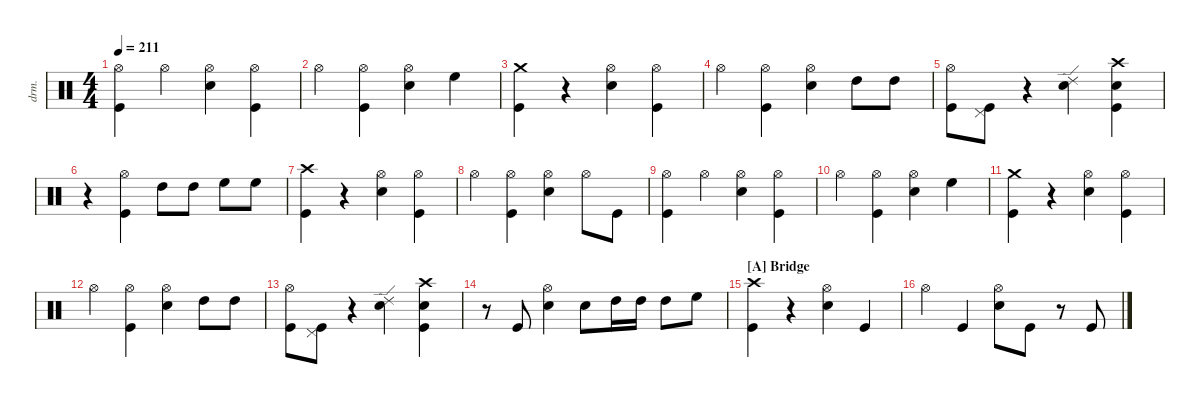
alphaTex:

\defaultSystemsLayout 4
\hideDynamics
\bracketExtendMode nobrackets
\track ("Drums" "drm.") {instrument percussion}
\staff {score}
\articulation defaults
\ts (4 4)
\tempo 211
\clef neutral
\ks c
("Kick (hit)" "Hi-Hat (open)"{acc #}).4{dy fff} "Hi-Hat (open)"{acc #}.4{dy mf} ("Snare (hit) 2" "Hi-Hat (open)"{acc #}).4{dy ff} ("Kick (hit)" "Hi-Hat (open)"{acc #}).4 |
"Hi-Hat (open)"{acc #}.4{dy fff} ("Kick (hit)" "Hi-Hat (open)"{acc #}).4{dy ff} ("Snare (hit) 2" "Hi-Hat (open)"{acc #}).4 "High Floor Tom (hit)".4 |
("Kick (hit)" "Crash medium (hit)").4{dy fff} r.4 ("Snare (hit) 2" "Hi-Hat (open)"{acc #}).4{dy ff} ("Kick (hit)" "Hi-Hat (open)"{acc #}).4 |
"Hi-Hat (open)"{acc #}.4{dy fff} ("Kick (hit)" "Hi-Hat (open)"{acc #}).4{dy ff} ("Snare (hit) 2" "Hi-Hat (open)"{acc #}).4 "High Tom (hit)".8 "High Tom (hit)".8{dy mf} |
("Kick (hit)" "Hi-Hat (open)"{acc #}).8{dy ff} ("Kick (hit)" "Pedal Hi-Hat (hit)"{acc #}).8{dy fff} r.4 ("Snare (hit) 2" "Ride (edge) 2").4{dy f} ("Kick (hit)" "Snare (hit) 2" "Crash high (hit)"{acc #}).4{dy ff} |
r.4 ("Kick (hit)" "Hi-Hat (open)"{acc #}).4{dy fff} "High Tom (hit)".8{dy ff} "High Tom (hit)".8{dy mf} "High Floor Tom (hit)".8{dy f} "High Floor Tom (hit)".8{dy mf} |
("Kick (hit)" "Crash high (hit)"{acc #}).4{dy fff} r.4 ("Snare (hit) 2" "Hi-Hat (open)"{acc #}).4{dy ff} ("Kick (hit)" "Hi-Hat (open)"{acc #}).4 |
"Hi-Hat (open)"{acc #}.4{dy fff} ("Kick (hit)" "Hi-Hat (open)"{acc #}).4{dy ff} ("Snare (hit) 2" "Hi-Hat (open)"{acc #}).4 "Hi-Hat (open)"{acc #}.8{dy mf} "Kick (hit)".8 |
("Kick (hit)" "Hi-Hat (open)"{acc #}).4{dy fff} "Hi-Hat (open)"{acc #}.4{dy mf} ("Snare (hit) 2" "Hi-Hat (open)"{acc #}).4{dy ff} ("Kick (hit)" "Hi-Hat (open)"{acc #}).4 |
"Hi-Hat (open)"{acc #}.4{dy fff} ("Kick (hit)" "Hi-Hat (open)"{acc #}).4{dy ff} ("Snare (hit) 2" "Hi-Hat (open)"{acc #}).4 "High Floor Tom (hit)".4 |
("Kick (hit)" "Crash medium (hit)").4{dy fff} r.4 ("Snare (hit) 2" "Hi-Hat (open)"{acc #}).4{dy ff} ("Kick (hit)" "Hi-Hat (open)"{acc #}).4 |
"Hi-Hat (open)"{acc #}.4{dy fff} ("Kick (hit)" "Hi-Hat (open)"{acc #}).4{dy ff} ("Snare (hit) 2" "Hi-Hat (open)"{acc #}).4 "High Tom (hit)".8 "High Tom (hit)".8{dy mf} |
("Kick (hit)" "Hi-Hat (open)"{acc #}).8{dy ff} ("Kick (hit)" "Pedal Hi-Hat (hit)"{acc #}).8{dy fff} r.4 ("Snare (hit) 2" "Ride (edge) 2").4{dy f} ("Kick (hit)" "Snare (hit) 2" "Crash high (hit)"{acc #}).4{dy ff} |
r.8 "Kick (hit)".8{dy mf} ("Snare (hit) 2" "Hi-Hat (open)"{acc #}).4{dy fff} "Snare (hit) 2".8 "High Tom (hit)".16{dy ff} "High Tom (hit)".16{dy pp} "High Tom (hit)".8{dy f} "High Floor Tom (hit)".8{dy mp} |
\section ("A" "Bridge")
("Kick (hit)" "Crash high (hit)"{acc #}).4{dy ff} r.4 ("Snare (hit) 2" "Hi-Hat (open)"{acc #}).4 "Kick (hit)".4 |
"Hi-Hat (open)"{acc #}.4 "Kick (hit)".4 ("Snare (hit) 2" "Hi-Hat (open)"{acc #}).8 "Kick (hit)".8 r.8 "Kick (hit)".8{dy mf}
